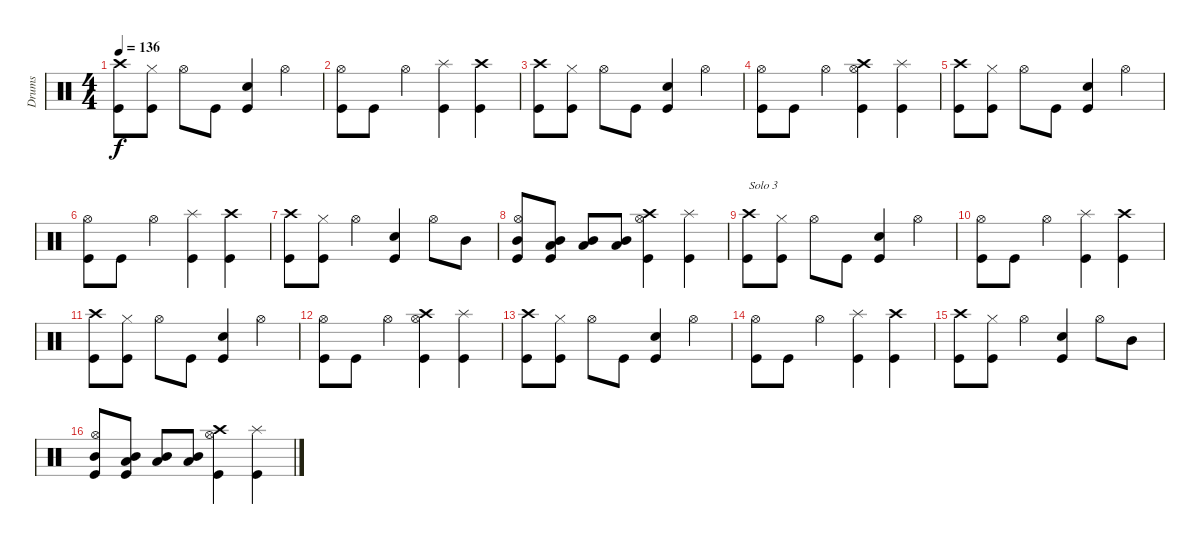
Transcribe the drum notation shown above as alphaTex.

\track ("Drums" "Drums") {instrument percussion}
\staff {score}
\articulation defaults
\ts (4 4)
\tempo 136
\clef neutral
\ks c
("Crash high (hit)" "Kick (hit)").8{dy f} ("Hi-Hat (closed)" "Kick (hit)").8 "Hi-Hat (open)".8 "Kick (hit)".8 ("Snare (hit) 2" "Kick (hit)").4 "Hi-Hat (open)".4 |
("Hi-Hat (open)" "Kick (hit)").8 "Kick (hit)".8 "Hi-Hat (open)".4 ("Splash (hit)" "Kick (hit)").4 ("Crash high (hit)" "Kick (hit)").4 |
("Crash high (hit)" "Kick (hit)").8 ("Hi-Hat (closed)" "Kick (hit)").8 "Hi-Hat (open)".8 "Kick (hit)".8 ("Snare (hit) 2" "Kick (hit)").4 "Hi-Hat (open)".4 |
("Hi-Hat (open)" "Kick (hit)").8 "Kick (hit)".8 "Hi-Hat (open)".4 ("Crash high (hit)" "Hi-Hat (open)" "Kick (hit)").4 ("Splash (hit)" "Kick (hit)").4 |
("Crash high (hit)" "Kick (hit)").8 ("Hi-Hat (closed)" "Kick (hit)").8 "Hi-Hat (open)".8 "Kick (hit)".8 ("Snare (hit) 2" "Kick (hit)").4 "Hi-Hat (open)".4 |
("Hi-Hat (open)" "Kick (hit)").8 "Kick (hit)".8 "Hi-Hat (open)".4 ("Splash (hit)" "Kick (hit)").4 ("Crash high (hit)" "Kick (hit)").4 |
("Crash high (hit)" "Kick (hit)").8 ("Hi-Hat (closed)" "Kick (hit)").8 "Hi-Hat (open)".4 ("Snare (hit) 2" "Kick (hit)").4 "Hi-Hat (open)".8 "Mid Tom (hit)".8 |
("Mid Tom (hit)" "Hi-Hat (open)" "Kick (hit)").8 ("Mid Tom (hit)" "Low Tom (hit)" "Kick (hit)").8 ("Mid Tom (hit)" "Low Tom (hit)").8 ("Mid Tom (hit)" "Low Tom (hit)").8 ("Crash high (hit)" "Hi-Hat (open)" "Kick (hit)").4 ("Splash (hit)" "Kick (hit)").4 |
("Crash high (hit)" "Kick (hit)").8{txt "Solo 3"} ("Hi-Hat (closed)" "Kick (hit)").8 "Hi-Hat (open)".8 "Kick (hit)".8 ("Snare (hit) 2" "Kick (hit)").4 "Hi-Hat (open)".4 |
("Hi-Hat (open)" "Kick (hit)").8 "Kick (hit)".8 "Hi-Hat (open)".4 ("Splash (hit)" "Kick (hit)").4 ("Crash high (hit)" "Kick (hit)").4 |
("Crash high (hit)" "Kick (hit)").8 ("Hi-Hat (closed)" "Kick (hit)").8 "Hi-Hat (open)".8 "Kick (hit)".8 ("Snare (hit) 2" "Kick (hit)").4 "Hi-Hat (open)".4 |
("Hi-Hat (open)" "Kick (hit)").8 "Kick (hit)".8 "Hi-Hat (open)".4 ("Crash high (hit)" "Hi-Hat (open)" "Kick (hit)").4 ("Splash (hit)" "Kick (hit)").4 |
("Crash high (hit)" "Kick (hit)").8 ("Hi-Hat (closed)" "Kick (hit)").8 "Hi-Hat (open)".8 "Kick (hit)".8 ("Snare (hit) 2" "Kick (hit)").4 "Hi-Hat (open)".4 |
("Hi-Hat (open)" "Kick (hit)").8 "Kick (hit)".8 "Hi-Hat (open)".4 ("Splash (hit)" "Kick (hit)").4 ("Crash high (hit)" "Kick (hit)").4 |
("Crash high (hit)" "Kick (hit)").8 ("Hi-Hat (closed)" "Kick (hit)").8 "Hi-Hat (open)".4 ("Snare (hit) 2" "Kick (hit)").4 "Hi-Hat (open)".8 "Mid Tom (hit)".8 |
("Mid Tom (hit)" "Hi-Hat (open)" "Kick (hit)").8 ("Mid Tom (hit)" "Low Tom (hit)" "Kick (hit)").8 ("Mid Tom (hit)" "Low Tom (hit)").8 ("Mid Tom (hit)" "Low Tom (hit)").8 ("Crash high (hit)" "Hi-Hat (open)" "Kick (hit)").4 ("Splash (hit)" "Kick (hit)").4
